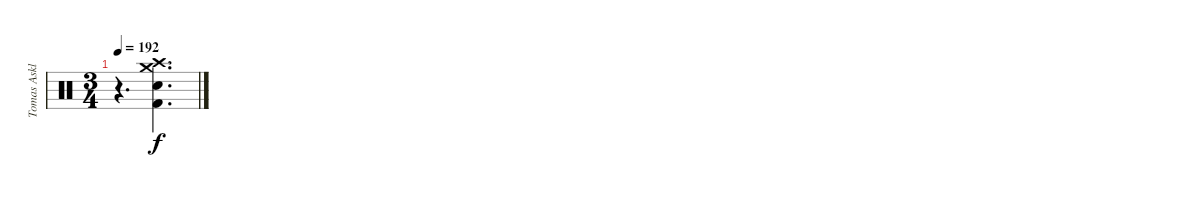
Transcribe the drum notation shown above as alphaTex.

\track ("Tomas Asklund" "Tomas Askl") {instrument percussion}
\staff {score}
\articulation defaults
\ts (3 4)
\tempo 192
\clef neutral
\ks c
r.4{d dy f} ("Crash medium (hit)" "Crash high (hit)" "Snare (hit) 2" "Kick (hit) 2").4{d}
